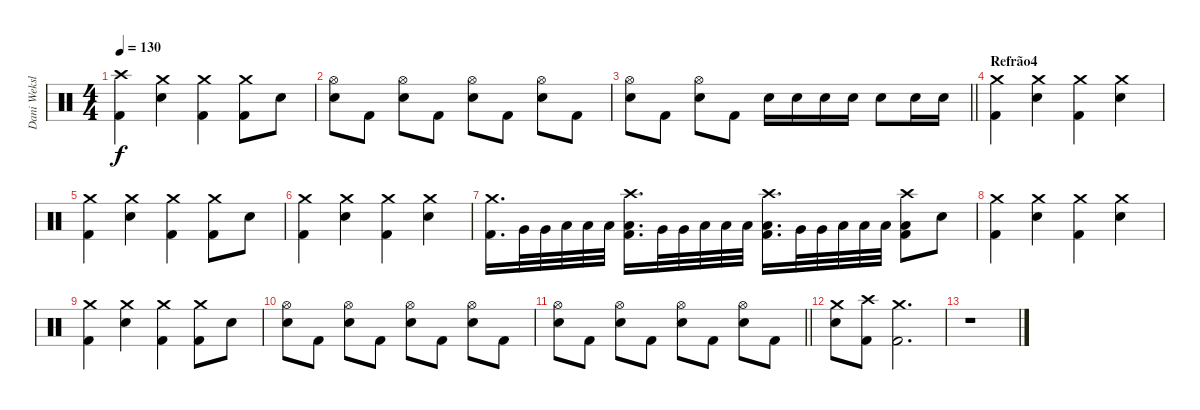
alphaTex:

\track ("Dani Weksler(Bateria)" "Dani Weksl") {instrument percussion}
\staff {score}
\articulation defaults
\ts (4 4)
\tempo 130
\clef neutral
\ks c
("Crash high (hit)" "Kick (hit) 2").4{dy f} ("Crash medium (hit)" "Electric Snare (hit)").4 ("Crash medium (hit)" "Kick (hit) 2").4 ("Crash medium (hit)" "Kick (hit) 2").8 "Electric Snare (hit)".8 |
("Hi-Hat (open)" "Electric Snare (hit)").8 "Kick (hit) 2".8 ("Hi-Hat (open)" "Electric Snare (hit)").8 "Kick (hit) 2".8 ("Hi-Hat (open)" "Electric Snare (hit)").8 "Kick (hit) 2".8 ("Hi-Hat (open)" "Electric Snare (hit)").8 "Kick (hit) 2".8 |
\barLineRight lightlight
("Hi-Hat (open)" "Electric Snare (hit)").8 "Kick (hit) 2".8 ("Hi-Hat (open)" "Electric Snare (hit)").8 "Kick (hit) 2".8 "Electric Snare (hit)".16 "Electric Snare (hit)".16 "Electric Snare (hit)".16 "Electric Snare (hit)".16 "Electric Snare (hit)".8 "Electric Snare (hit)".16 "Electric Snare (hit)".16 |
\section ("" "Refrão4")
("Crash medium (hit)" "Kick (hit) 2").4 ("Crash medium (hit)" "Electric Snare (hit)").4 ("Crash medium (hit)" "Kick (hit) 2").4 ("Crash medium (hit)" "Electric Snare (hit)").4 |
("Crash medium (hit)" "Kick (hit) 2").4 ("Crash medium (hit)" "Electric Snare (hit)").4 ("Crash medium (hit)" "Kick (hit) 2").4 ("Crash medium (hit)" "Kick (hit) 2").8 "Electric Snare (hit)".8 |
("Crash medium (hit)" "Kick (hit) 2").4 ("Crash medium (hit)" "Electric Snare (hit)").4 ("Crash medium (hit)" "Kick (hit) 2").4 ("Crash medium (hit)" "Electric Snare (hit)").4 |
("Crash medium (hit)" "Kick (hit) 2").16{d} "Very Low Tom (hit)".32 "Very Low Tom (hit)".32 "Low Floor Tom (hit)".32 "Low Floor Tom (hit)".32 "Low Floor Tom (hit)".32 ("Crash high (hit)" "Low Floor Tom (hit)" "Kick (hit) 2").16{d} "Very Low Tom (hit)".32 "Very Low Tom (hit)".32 "Low Floor Tom (hit)".32 "Low Floor Tom (hit)".32 "Low Floor Tom (hit)".32 ("Crash high (hit)" "Low Floor Tom (hit)" "Kick (hit) 2").16{d} "Very Low Tom (hit)".32 "Very Low Tom (hit)".32 "Low Floor Tom (hit)".32 "Low Floor Tom (hit)".32 "Low Floor Tom (hit)".32 ("Crash high (hit)" "Low Floor Tom (hit)" "Kick (hit) 2").8 "Electric Snare (hit)".8 |
("Crash medium (hit)" "Kick (hit) 2").4 ("Crash medium (hit)" "Electric Snare (hit)").4 ("Crash medium (hit)" "Kick (hit) 2").4 ("Crash medium (hit)" "Electric Snare (hit)").4 |
("Crash medium (hit)" "Kick (hit) 2").4 ("Crash medium (hit)" "Electric Snare (hit)").4 ("Crash medium (hit)" "Kick (hit) 2").4 ("Crash medium (hit)" "Kick (hit) 2").8 "Electric Snare (hit)".8 |
("Hi-Hat (open)" "Electric Snare (hit)").8 "Kick (hit) 2".8 ("Hi-Hat (open)" "Electric Snare (hit)").8 "Kick (hit) 2".8 ("Hi-Hat (open)" "Electric Snare (hit)").8 "Kick (hit) 2".8 ("Hi-Hat (open)" "Electric Snare (hit)").8 "Kick (hit) 2".8 |
\barLineRight lightlight
("Hi-Hat (open)" "Electric Snare (hit)").8 "Kick (hit) 2".8 ("Hi-Hat (open)" "Electric Snare (hit)").8 "Kick (hit) 2".8 ("Hi-Hat (open)" "Electric Snare (hit)").8 "Kick (hit) 2".8 ("Hi-Hat (open)" "Electric Snare (hit)").8 "Kick (hit) 2".8 |
("Crash medium (hit)" "Electric Snare (hit)").8 ("Crash high (hit)" "Kick (hit) 2").8 ("Crash medium (hit)" "Kick (hit) 2").2{d} |
r.1
